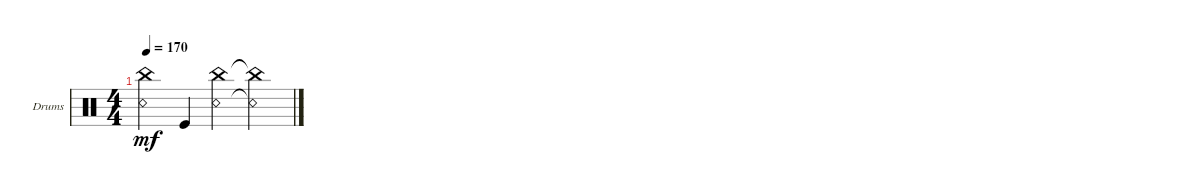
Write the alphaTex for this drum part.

\defaultSystemsLayout 4
\bracketExtendMode groupsimilarinstruments
\firstSystemTrackNameOrientation horizontal
\otherSystemsTrackNameOrientation horizontal
\track ("Drumkit" "Drums") {instrument percussion}
\staff {score}
\articulation defaults
\ts (4 4)
\tempo 170
\clef neutral
\ks c
("China (hit)" "Snare (rim shot)").4{dy mf} "Kick (hit)".4 ("Snare (rim shot)" "China (hit)").4 ("Snare (rim shot)"{t} "China (hit)"{t}).4
